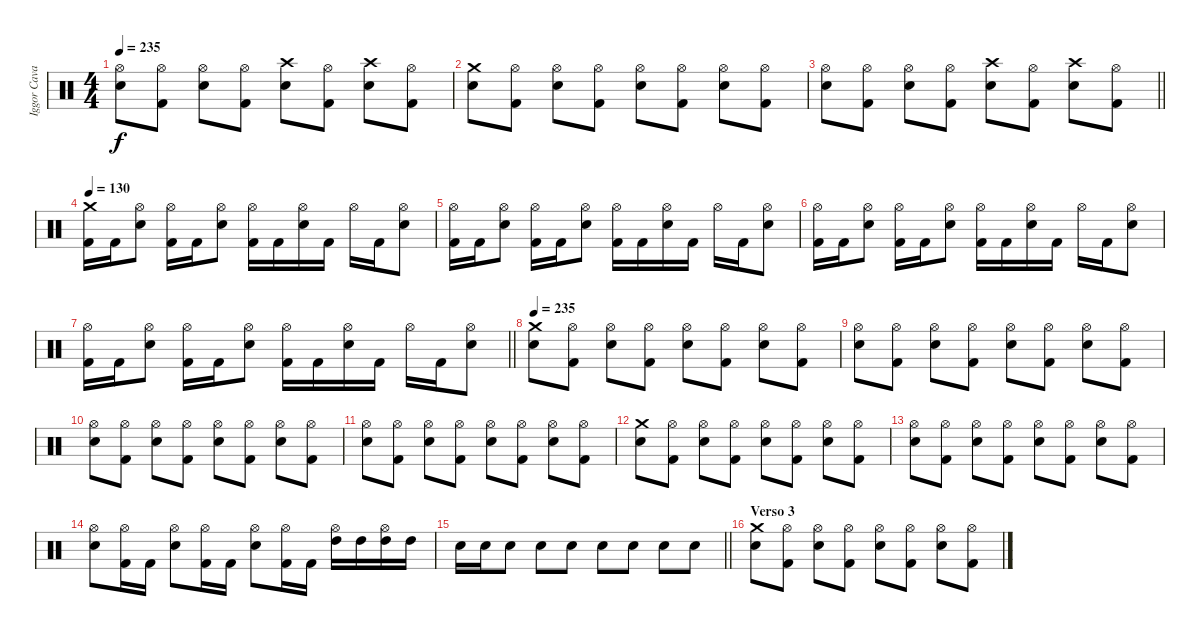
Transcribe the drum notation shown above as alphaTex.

\track ("Iggor Cavalera" "Iggor Cava") {instrument percussion}
\staff {score}
\articulation defaults
\ts (4 4)
\tempo 235
\clef neutral
\ks c
("Hi-Hat (open)" "Snare (hit) 2").8{dy f} ("Hi-Hat (open)" "Kick (hit) 2").8 ("Hi-Hat (open)" "Snare (hit) 2").8 ("Hi-Hat (open)" "Kick (hit) 2").8 ("Crash high (hit)" "Snare (hit) 2").8 ("Hi-Hat (open)" "Kick (hit) 2").8 ("Crash high (hit)" "Snare (hit) 2").8 ("Hi-Hat (open)" "Kick (hit) 2").8 |
("Crash medium (hit)" "Snare (hit) 2").8 ("Hi-Hat (open)" "Kick (hit) 2").8 ("Hi-Hat (open)" "Snare (hit) 2").8 ("Hi-Hat (open)" "Kick (hit) 2").8 ("Hi-Hat (open)" "Snare (hit) 2").8 ("Hi-Hat (open)" "Kick (hit) 2").8 ("Hi-Hat (open)" "Snare (hit) 2").8 ("Hi-Hat (open)" "Kick (hit) 2").8 |
\barLineRight lightlight
("Hi-Hat (open)" "Snare (hit) 2").8 ("Hi-Hat (open)" "Kick (hit) 2").8 ("Hi-Hat (open)" "Snare (hit) 2").8 ("Hi-Hat (open)" "Kick (hit) 2").8 ("Crash high (hit)" "Snare (hit) 2").8 ("Hi-Hat (open)" "Kick (hit) 2").8 ("Crash high (hit)" "Snare (hit) 2").8 ("Hi-Hat (open)" "Kick (hit) 2").8 |
\tempo 130
("Crash medium (hit)" "Kick (hit) 2").16 "Kick (hit) 2".16 ("Hi-Hat (open)" "Snare (hit) 2").8 ("Hi-Hat (open)" "Kick (hit) 2").16 "Kick (hit) 2".16 ("Hi-Hat (open)" "Snare (hit) 2").8 ("Hi-Hat (open)" "Kick (hit) 2").16 "Kick (hit) 2".16 ("Hi-Hat (open)" "Snare (hit) 2").16 "Kick (hit) 2".16 "Hi-Hat (open)".16 "Kick (hit) 2".16 ("Hi-Hat (open)" "Snare (hit) 2").8 |
("Hi-Hat (open)" "Kick (hit) 2").16 "Kick (hit) 2".16 ("Hi-Hat (open)" "Snare (hit) 2").8 ("Hi-Hat (open)" "Kick (hit) 2").16 "Kick (hit) 2".16 ("Hi-Hat (open)" "Snare (hit) 2").8 ("Hi-Hat (open)" "Kick (hit) 2").16 "Kick (hit) 2".16 ("Hi-Hat (open)" "Snare (hit) 2").16 "Kick (hit) 2".16 "Hi-Hat (open)".16 "Kick (hit) 2".16 ("Hi-Hat (open)" "Snare (hit) 2").8 |
("Hi-Hat (open)" "Kick (hit) 2").16 "Kick (hit) 2".16 ("Hi-Hat (open)" "Snare (hit) 2").8 ("Hi-Hat (open)" "Kick (hit) 2").16 "Kick (hit) 2".16 ("Hi-Hat (open)" "Snare (hit) 2").8 ("Hi-Hat (open)" "Kick (hit) 2").16 "Kick (hit) 2".16 ("Hi-Hat (open)" "Snare (hit) 2").16 "Kick (hit) 2".16 "Hi-Hat (open)".16 "Kick (hit) 2".16 ("Hi-Hat (open)" "Snare (hit) 2").8 |
\barLineRight lightlight
("Hi-Hat (open)" "Kick (hit) 2").16 "Kick (hit) 2".16 ("Hi-Hat (open)" "Snare (hit) 2").8 ("Hi-Hat (open)" "Kick (hit) 2").16 "Kick (hit) 2".16 ("Hi-Hat (open)" "Snare (hit) 2").8 ("Hi-Hat (open)" "Kick (hit) 2").16 "Kick (hit) 2".16 ("Hi-Hat (open)" "Snare (hit) 2").16 "Kick (hit) 2".16 "Hi-Hat (open)".16 "Kick (hit) 2".16 ("Hi-Hat (open)" "Snare (hit) 2").8 |
\tempo 235
("Crash medium (hit)" "Snare (hit) 2").8 ("Hi-Hat (open)" "Kick (hit) 2").8 ("Hi-Hat (open)" "Snare (hit) 2").8 ("Hi-Hat (open)" "Kick (hit) 2").8 ("Hi-Hat (open)" "Snare (hit) 2").8 ("Hi-Hat (open)" "Kick (hit) 2").8 ("Hi-Hat (open)" "Snare (hit) 2").8 ("Hi-Hat (open)" "Kick (hit) 2").8 |
("Hi-Hat (open)" "Snare (hit) 2").8 ("Hi-Hat (open)" "Kick (hit) 2").8 ("Hi-Hat (open)" "Snare (hit) 2").8 ("Hi-Hat (open)" "Kick (hit) 2").8 ("Hi-Hat (open)" "Snare (hit) 2").8 ("Hi-Hat (open)" "Kick (hit) 2").8 ("Hi-Hat (open)" "Snare (hit) 2").8 ("Hi-Hat (open)" "Kick (hit) 2").8 |
("Hi-Hat (open)" "Snare (hit) 2").8 ("Hi-Hat (open)" "Kick (hit) 2").8 ("Hi-Hat (open)" "Snare (hit) 2").8 ("Hi-Hat (open)" "Kick (hit) 2").8 ("Hi-Hat (open)" "Snare (hit) 2").8 ("Hi-Hat (open)" "Kick (hit) 2").8 ("Hi-Hat (open)" "Snare (hit) 2").8 ("Hi-Hat (open)" "Kick (hit) 2").8 |
("Hi-Hat (open)" "Snare (hit) 2").8 ("Hi-Hat (open)" "Kick (hit) 2").8 ("Hi-Hat (open)" "Snare (hit) 2").8 ("Hi-Hat (open)" "Kick (hit) 2").8 ("Hi-Hat (open)" "Snare (hit) 2").8 ("Hi-Hat (open)" "Kick (hit) 2").8 ("Hi-Hat (open)" "Snare (hit) 2").8 ("Hi-Hat (open)" "Kick (hit) 2").8 |
("Crash medium (hit)" "Snare (hit) 2").8 ("Hi-Hat (open)" "Kick (hit) 2").8 ("Hi-Hat (open)" "Snare (hit) 2").8 ("Hi-Hat (open)" "Kick (hit) 2").8 ("Hi-Hat (open)" "Snare (hit) 2").8 ("Hi-Hat (open)" "Kick (hit) 2").8 ("Hi-Hat (open)" "Snare (hit) 2").8 ("Hi-Hat (open)" "Kick (hit) 2").8 |
("Hi-Hat (open)" "Snare (hit) 2").8 ("Hi-Hat (open)" "Kick (hit) 2").8 ("Hi-Hat (open)" "Snare (hit) 2").8 ("Hi-Hat (open)" "Kick (hit) 2").8 ("Hi-Hat (open)" "Snare (hit) 2").8 ("Hi-Hat (open)" "Kick (hit) 2").8 ("Hi-Hat (open)" "Snare (hit) 2").8 ("Hi-Hat (open)" "Kick (hit) 2").8 |
("Hi-Hat (open)" "Snare (hit) 2").8 ("Hi-Hat (open)" "Kick (hit) 2").16 "Kick (hit) 2".16 ("Hi-Hat (open)" "Snare (hit) 2").8 ("Hi-Hat (open)" "Kick (hit) 2").16 "Kick (hit) 2".16 ("Hi-Hat (open)" "Snare (hit) 2").8 ("Hi-Hat (open)" "Kick (hit) 2").16 "Kick (hit) 2".16 ("Hi-Hat (open)" "High Tom (hit)").16 "High Tom (hit)".16 ("Hi-Hat (open)" "High Tom (hit)").16 "High Tom (hit)".16 |
\barLineRight lightlight "Snare (hit) 2".16 "Snare (hit) 2".16 "Snare (hit) 2".8 "Snare (hit) 2".8 "Snare (hit) 2".8 "Snare (hit) 2".8 "Snare (hit) 2".8 "Snare (hit) 2".8 "Snare (hit) 2".8
|
\section ("" "Verso 3")
("Crash medium (hit)" "Snare (hit) 2").8 ("Hi-Hat (open)" "Kick (hit) 2").8 ("Hi-Hat (open)" "Snare (hit) 2").8 ("Hi-Hat (open)" "Kick (hit) 2").8 ("Hi-Hat (open)" "Snare (hit) 2").8 ("Hi-Hat (open)" "Kick (hit) 2").8 ("Hi-Hat (open)" "Snare (hit) 2").8 ("Hi-Hat (open)" "Kick (hit) 2").8
